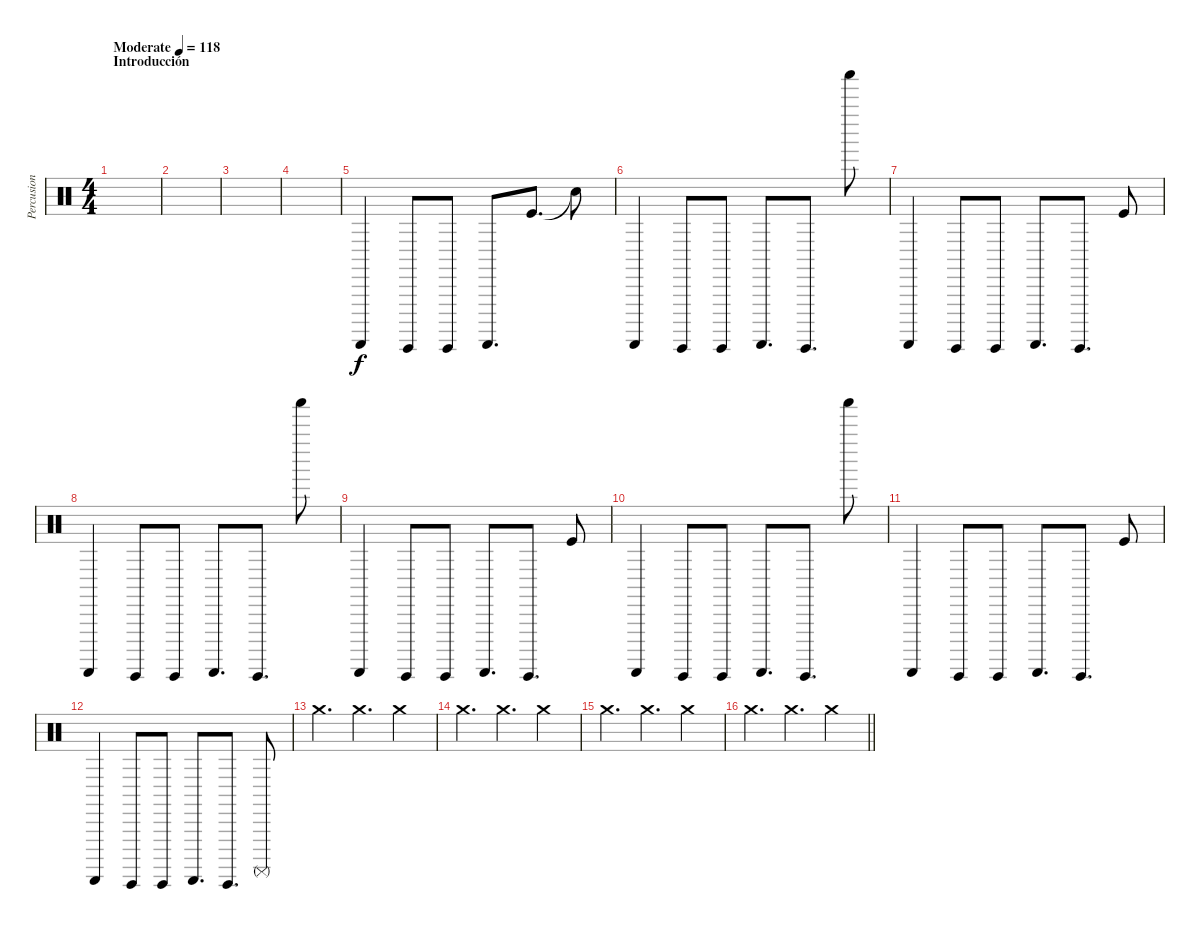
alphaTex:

\track ("Percusion" "Percusion") {instrument percussion}
\staff {score}
\articulation defaults
\ts (4 4)
\section ("" "Introducción")
\tempo (118 "Moderate")
\clef neutral
\ks c
|
|
|
|
"Guiro (scrap-return)".4 "Guiro (hit)".8 "Guiro (hit)".8 "Guiro (scrap-return)".8{d} "Kick (hit)".8{d} "Snare (hit)"{t}.8 |
"Guiro (scrap-return)".4 "Guiro (hit)".8 "Guiro (hit)".8 "Guiro (scrap-return)".8{d} "Guiro (hit)".8{d} "Shaker (hit)".8 |
"Guiro (scrap-return)".4 "Guiro (hit)".8 "Guiro (hit)".8 "Guiro (scrap-return)".8{d} "Guiro (hit)".8{d} "Kick (hit)".8 |
"Guiro (scrap-return)".4 "Guiro (hit)".8 "Guiro (hit)".8 "Guiro (scrap-return)".8{d} "Guiro (hit)".8{d} "Shaker (hit)".8 |
"Guiro (scrap-return)".4 "Guiro (hit)".8 "Guiro (hit)".8 "Guiro (scrap-return)".8{d} "Guiro (hit)".8{d} "Kick (hit)".8 |
"Guiro (scrap-return)".4 "Guiro (hit)".8 "Guiro (hit)".8 "Guiro (scrap-return)".8{d} "Guiro (hit)".8{d} "Shaker (hit)".8 |
"Guiro (scrap-return)".4 "Guiro (hit)".8 "Guiro (hit)".8 "Guiro (scrap-return)".8{d} "Guiro (hit)".8{d} "Kick (hit)".8 |
"Guiro (scrap-return)".4 "Guiro (hit)".8 "Guiro (hit)".8 "Guiro (scrap-return)".8{d} "Guiro (hit)".8{d} "Surdo (mute)".8 |
"Crash medium (hit)".4{d} "Crash medium (hit)".4{d} "Crash medium (hit)".4 |
"Crash medium (hit)".4{d} "Crash medium (hit)".4{d} "Crash medium (hit)".4 |
"Crash medium (hit)".4{d} "Crash medium (hit)".4{d} "Crash medium (hit)".4 |
\barLineRight lightlight "Crash medium (hit)".4{d} "Crash medium (hit)".4{d} "Crash medium (hit)".4
